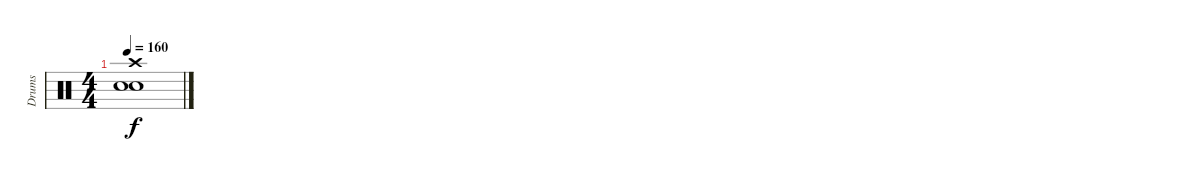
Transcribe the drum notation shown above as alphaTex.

\track ("Drums" "Drums") {instrument percussion}
\staff {score}
\articulation defaults
\ts (4 4)
\tempo 160
\clef neutral
\ks c
("Crash high (hit)"{t} "Snare (hit)"{t} "Snare (hit)"{t}).1{dy f}
